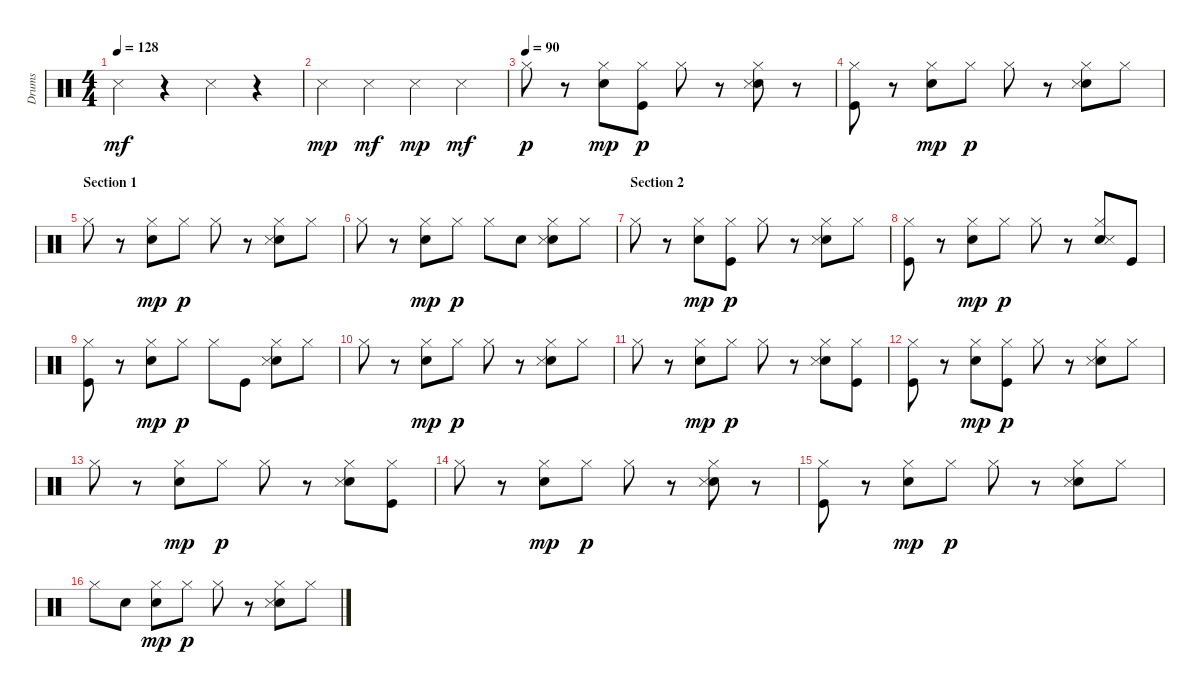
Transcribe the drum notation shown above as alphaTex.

\track ("Drums" "Drums") {instrument percussion}
\staff {score}
\articulation defaults
\ts (4 4)
\tempo 128
\clef neutral
\ks c "Snare (side stick) 3".4{dy mf}
r.4 "Snare (side stick) 3".4 r.4 |
"Snare (side stick) 3".4{dy mp} "Snare (side stick) 3".4{dy mf} "Snare (side stick) 3".4{dy mp} "Snare (side stick) 3".4{dy mf} |
\tempo (90)
"Hi-Hat (closed)".8{dy p} r.8 ("Snare (hit) 2" "Hi-Hat (closed)").8{dy mp} ("Kick (hit)" "Hi-Hat (closed)").8{dy p} "Hi-Hat (closed)".8 r.8 ("Snare (hit) 2" "Hi-Hat (closed)" "Snare (side stick) 3").8 r.8 |
("Kick (hit)" "Hi-Hat (closed)").8 r.8 ("Snare (hit) 2" "Hi-Hat (closed)").8{dy mp} "Hi-Hat (closed)".8{dy p} "Hi-Hat (closed)".8 r.8 ("Snare (hit) 2" "Hi-Hat (closed)" "Snare (side stick) 3").8 "Hi-Hat (closed)".8 |
\section ("" "Section 1")
"Hi-Hat (closed)".8 r.8 ("Snare (hit) 2" "Hi-Hat (closed)").8{dy mp} "Hi-Hat (closed)".8{dy p} "Hi-Hat (closed)".8 r.8 ("Snare (hit) 2" "Hi-Hat (closed)" "Snare (side stick) 3").8 "Hi-Hat (closed)".8 |
"Hi-Hat (closed)".8 r.8 ("Snare (hit) 2" "Hi-Hat (closed)").8{dy mp} "Hi-Hat (closed)".8{dy p} "Hi-Hat (closed)".8 "Snare (hit) 2".8 ("Snare (hit) 2" "Hi-Hat (closed)" "Snare (side stick) 3").8 "Hi-Hat (closed)".8 |
\section ("" "Section 2")
"Hi-Hat (closed)".8 r.8 ("Snare (hit) 2" "Hi-Hat (closed)").8{dy mp} ("Kick (hit)" "Hi-Hat (closed)").8{dy p} "Hi-Hat (closed)".8 r.8 ("Snare (hit) 2" "Hi-Hat (closed)" "Snare (side stick) 3").8 "Hi-Hat (closed)".8 |
("Kick (hit)" "Hi-Hat (closed)").8 r.8 ("Snare (hit) 2" "Hi-Hat (closed)").8{dy mp} "Hi-Hat (closed)".8{dy p} "Hi-Hat (closed)".8 r.8 ("Snare (hit) 2" "Hi-Hat (closed)" "Snare (side stick) 3").8 "Kick (hit)".8 |
("Kick (hit)" "Hi-Hat (closed)").8 r.8 ("Snare (hit) 2" "Hi-Hat (closed)").8{dy mp} "Hi-Hat (closed)".8{dy p} "Hi-Hat (closed)".8 "Kick (hit)".8 ("Snare (hit) 2" "Hi-Hat (closed)" "Snare (side stick) 3").8 "Hi-Hat (closed)".8 |
"Hi-Hat (closed)".8 r.8 ("Snare (hit) 2" "Hi-Hat (closed)").8{dy mp} "Hi-Hat (closed)".8{dy p} "Hi-Hat (closed)".8 r.8 ("Snare (hit) 2" "Hi-Hat (closed)" "Snare (side stick) 3").8 "Hi-Hat (closed)".8 |
"Hi-Hat (closed)".8 r.8 ("Snare (hit) 2" "Hi-Hat (closed)").8{dy mp} "Hi-Hat (closed)".8{dy p} "Hi-Hat (closed)".8 r.8 ("Snare (hit) 2" "Hi-Hat (closed)" "Snare (side stick) 3").8 ("Kick (hit)" "Hi-Hat (closed)").8 |
("Kick (hit)" "Hi-Hat (closed)").8 r.8 ("Snare (hit) 2" "Hi-Hat (closed)").8{dy mp} ("Kick (hit)" "Hi-Hat (closed)").8{dy p} "Hi-Hat (closed)".8 r.8 ("Snare (hit) 2" "Hi-Hat (closed)" "Snare (side stick) 3").8 "Hi-Hat (closed)".8 |
"Hi-Hat (closed)".8 r.8 ("Snare (hit) 2" "Hi-Hat (closed)").8{dy mp} "Hi-Hat (closed)".8{dy p} "Hi-Hat (closed)".8 r.8 ("Snare (hit) 2" "Hi-Hat (closed)" "Snare (side stick) 3").8 ("Kick (hit)" "Hi-Hat (closed)").8 |
"Hi-Hat (closed)".8 r.8 ("Snare (hit) 2" "Hi-Hat (closed)").8{dy mp} "Hi-Hat (closed)".8{dy p} "Hi-Hat (closed)".8 r.8 ("Snare (hit) 2" "Hi-Hat (closed)" "Snare (side stick) 3").8 r.8 |
("Kick (hit)" "Hi-Hat (closed)").8 r.8 ("Snare (hit) 2" "Hi-Hat (closed)").8{dy mp} "Hi-Hat (closed)".8{dy p} "Hi-Hat (closed)".8 r.8 ("Snare (hit) 2" "Hi-Hat (closed)" "Snare (side stick) 3").8 "Hi-Hat (closed)".8 |
"Hi-Hat (closed)".8 "Snare (hit) 2".8 ("Snare (hit) 2" "Hi-Hat (closed)").8{dy mp} "Hi-Hat (closed)".8{dy p} "Hi-Hat (closed)".8 r.8 ("Snare (hit) 2" "Hi-Hat (closed)" "Snare (side stick) 3").8 "Hi-Hat (closed)".8
